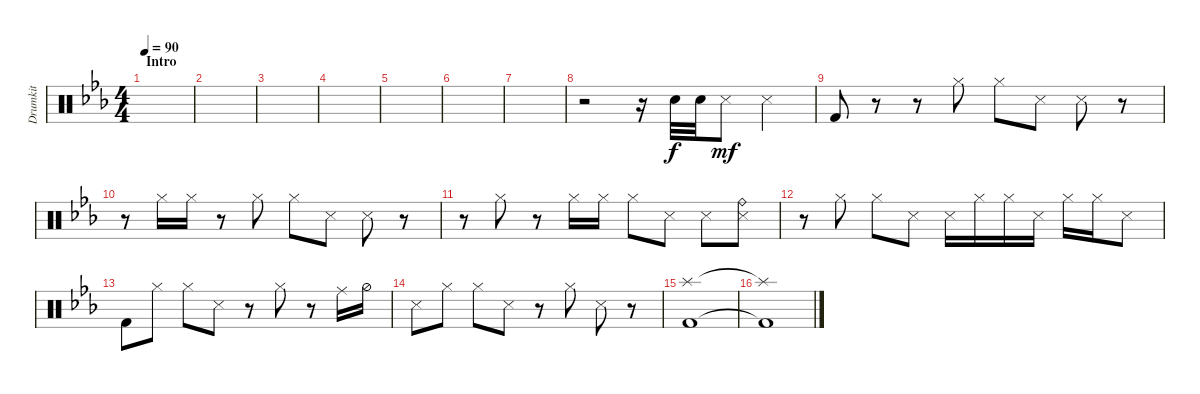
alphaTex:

\track ("Drumkit" "Drumkit") {instrument percussion}
\staff {score}
\articulation defaults
\ts (4 4)
\section ("" "Intro")
\tempo 90
\clef neutral
\ks cminor
|
|
|
|
|
|
|
r.2 r.16 "Snare (hit) 2".32 "Snare (hit) 2".32 "Snare (side stick) 3".8{dy mf} "Snare (side stick) 3".4 |
"Kick (hit) 2".8 r.8 r.8 "Hi-Hat (closed)".8 "Hi-Hat (closed)".8 "Snare (side stick) 3".8 "Snare (side stick) 3".8 r.8 |
r.8 "Hi-Hat (closed)".16 "Hi-Hat (closed)".16 r.8 "Hi-Hat (closed)".8 "Hi-Hat (closed)".8 "Snare (side stick) 3".8 "Snare (side stick) 3".8 r.8 |
r.8 "Hi-Hat (closed)".8 r.8 "Hi-Hat (closed)".16 "Hi-Hat (closed)".16 "Hi-Hat (closed)".8 "Snare (side stick) 3".8 "Snare (side stick) 3".8 ("Snare (side stick) 3" "Ride (bell)").8 |
r.8 "Hi-Hat (closed)".8 "Hi-Hat (closed)".8 "Snare (side stick) 3".8 "Snare (side stick) 3".16 "Hi-Hat (closed)".16 "Hi-Hat (closed)".16 "Snare (side stick) 3".16 "Hi-Hat (closed)".16 "Hi-Hat (closed)".16 "Snare (side stick) 3".8 |
"Kick (hit) 2".8 "Hi-Hat (closed)".8 "Hi-Hat (closed)".8 "Snare (side stick) 3".8 r.8 "Hi-Hat (closed)".8 r.8 "Ride (middle)".16 "Hi-Hat (half)".16 |
"Snare (side stick) 3".8 "Hi-Hat (closed)".8 "Hi-Hat (closed)".8 "Snare (side stick) 3".8 r.8 "Hi-Hat (closed)".8 "Snare (side stick) 3".8 r.8 |
("Splash (hit)" "Kick (hit) 2").1 |
("Splash (hit)"{t} "Kick (hit) 2"{t}).1
